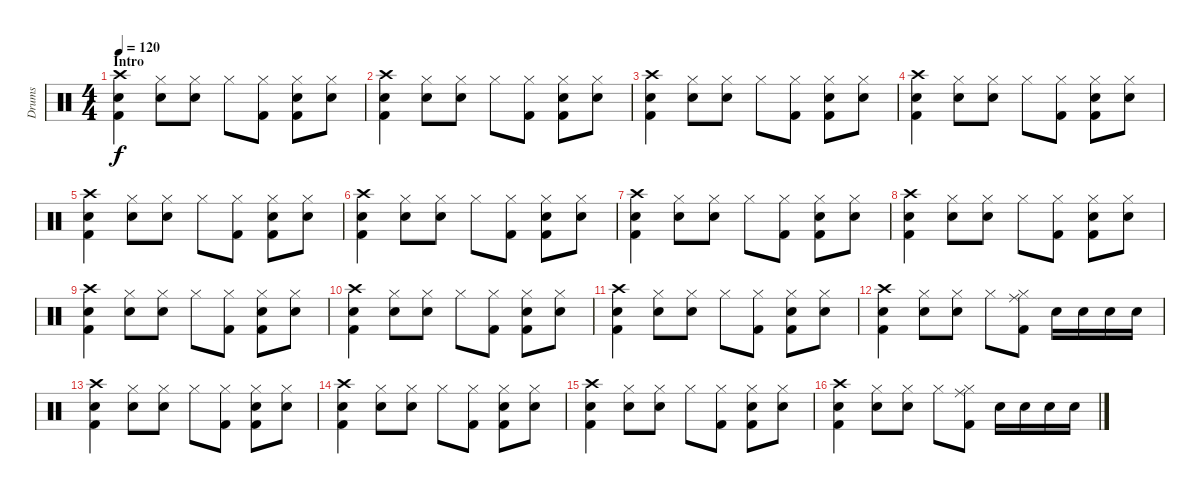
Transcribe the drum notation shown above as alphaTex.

\track ("Drums" "Drums") {instrument percussion}
\staff {score}
\articulation defaults
\ts (4 4)
\section ("" "Intro")
\tempo 120
\clef neutral
\ks c
("Crash high (hit)" "Kick (hit) 2" "Snare (hit) 2").4{dy f} ("Hi-Hat (closed)" "Snare (hit) 2").8 ("Hi-Hat (closed)" "Snare (hit) 2").8 "Hi-Hat (closed)".8 ("Hi-Hat (closed)" "Kick (hit) 2").8 ("Hi-Hat (closed)" "Kick (hit) 2" "Snare (hit) 2").8 ("Hi-Hat (closed)" "Snare (hit) 2").8 |
("Crash high (hit)" "Kick (hit) 2" "Snare (hit) 2").4 ("Hi-Hat (closed)" "Snare (hit) 2").8 ("Hi-Hat (closed)" "Snare (hit) 2").8 "Hi-Hat (closed)".8 ("Hi-Hat (closed)" "Kick (hit) 2").8 ("Hi-Hat (closed)" "Kick (hit) 2" "Snare (hit) 2").8 ("Hi-Hat (closed)" "Snare (hit) 2").8 |
("Crash high (hit)" "Kick (hit) 2" "Snare (hit) 2").4 ("Hi-Hat (closed)" "Snare (hit) 2").8 ("Hi-Hat (closed)" "Snare (hit) 2").8 "Hi-Hat (closed)".8 ("Hi-Hat (closed)" "Kick (hit) 2").8 ("Hi-Hat (closed)" "Kick (hit) 2" "Snare (hit) 2").8 ("Hi-Hat (closed)" "Snare (hit) 2").8 |
("Crash high (hit)" "Kick (hit) 2" "Snare (hit) 2").4 ("Hi-Hat (closed)" "Snare (hit) 2").8 ("Hi-Hat (closed)" "Snare (hit) 2").8 "Hi-Hat (closed)".8 ("Hi-Hat (closed)" "Kick (hit) 2").8 ("Hi-Hat (closed)" "Kick (hit) 2" "Snare (hit) 2").8 ("Hi-Hat (closed)" "Snare (hit) 2").8 |
("Crash high (hit)" "Kick (hit) 2" "Snare (hit) 2").4 ("Hi-Hat (closed)" "Snare (hit) 2").8 ("Hi-Hat (closed)" "Snare (hit) 2").8 "Hi-Hat (closed)".8 ("Hi-Hat (closed)" "Kick (hit) 2").8 ("Hi-Hat (closed)" "Kick (hit) 2" "Snare (hit) 2").8 ("Hi-Hat (closed)" "Snare (hit) 2").8 |
("Crash high (hit)" "Kick (hit) 2" "Snare (hit) 2").4 ("Hi-Hat (closed)" "Snare (hit) 2").8 ("Hi-Hat (closed)" "Snare (hit) 2").8 "Hi-Hat (closed)".8 ("Hi-Hat (closed)" "Kick (hit) 2").8 ("Hi-Hat (closed)" "Kick (hit) 2" "Snare (hit) 2").8 ("Hi-Hat (closed)" "Snare (hit) 2").8 |
("Crash high (hit)" "Kick (hit) 2" "Snare (hit) 2").4 ("Hi-Hat (closed)" "Snare (hit) 2").8 ("Hi-Hat (closed)" "Snare (hit) 2").8 "Hi-Hat (closed)".8 ("Hi-Hat (closed)" "Kick (hit) 2").8 ("Hi-Hat (closed)" "Kick (hit) 2" "Snare (hit) 2").8 ("Hi-Hat (closed)" "Snare (hit) 2").8 |
("Crash high (hit)" "Kick (hit) 2" "Snare (hit) 2").4 ("Hi-Hat (closed)" "Snare (hit) 2").8 ("Hi-Hat (closed)" "Snare (hit) 2").8 "Hi-Hat (closed)".8 ("Hi-Hat (closed)" "Kick (hit) 2").8 ("Hi-Hat (closed)" "Kick (hit) 2" "Snare (hit) 2").8 ("Hi-Hat (closed)" "Snare (hit) 2").8 |
("Crash high (hit)" "Kick (hit) 2" "Snare (hit) 2").4 ("Hi-Hat (closed)" "Snare (hit) 2").8 ("Hi-Hat (closed)" "Snare (hit) 2").8 "Hi-Hat (closed)".8 ("Hi-Hat (closed)" "Kick (hit) 2").8 ("Hi-Hat (closed)" "Kick (hit) 2" "Snare (hit) 2").8 ("Hi-Hat (closed)" "Snare (hit) 2").8 |
("Crash high (hit)" "Kick (hit) 2" "Snare (hit) 2").4 ("Hi-Hat (closed)" "Snare (hit) 2").8 ("Hi-Hat (closed)" "Snare (hit) 2").8 "Hi-Hat (closed)".8 ("Hi-Hat (closed)" "Kick (hit) 2").8 ("Hi-Hat (closed)" "Kick (hit) 2" "Snare (hit) 2").8 ("Hi-Hat (closed)" "Snare (hit) 2").8 |
("Crash high (hit)" "Kick (hit) 2" "Snare (hit) 2").4 ("Hi-Hat (closed)" "Snare (hit) 2").8 ("Hi-Hat (closed)" "Snare (hit) 2").8 "Hi-Hat (closed)".8 ("Hi-Hat (closed)" "Kick (hit) 2").8 ("Hi-Hat (closed)" "Kick (hit) 2" "Snare (hit) 2").8 ("Hi-Hat (closed)" "Snare (hit) 2").8 |
("Crash high (hit)" "Kick (hit) 2" "Snare (hit) 2").4 ("Hi-Hat (closed)" "Snare (hit) 2").8 ("Hi-Hat (closed)" "Snare (hit) 2").8 "Hi-Hat (closed)".8 ("Ride (middle)" "Hi-Hat (closed)" "Kick (hit) 2").8 "Electric Snare (hit)".16 "Electric Snare (hit)".16 "Electric Snare (hit)".16 "Electric Snare (hit)".16 |
("Crash high (hit)" "Kick (hit) 2" "Snare (hit) 2").4 ("Hi-Hat (closed)" "Snare (hit) 2").8 ("Hi-Hat (closed)" "Snare (hit) 2").8 "Hi-Hat (closed)".8 ("Hi-Hat (closed)" "Kick (hit) 2").8 ("Hi-Hat (closed)" "Kick (hit) 2" "Snare (hit) 2").8 ("Hi-Hat (closed)" "Snare (hit) 2").8 |
("Crash high (hit)" "Kick (hit) 2" "Snare (hit) 2").4 ("Hi-Hat (closed)" "Snare (hit) 2").8 ("Hi-Hat (closed)" "Snare (hit) 2").8 "Hi-Hat (closed)".8 ("Hi-Hat (closed)" "Kick (hit) 2").8 ("Hi-Hat (closed)" "Kick (hit) 2" "Snare (hit) 2").8 ("Hi-Hat (closed)" "Snare (hit) 2").8 |
("Crash high (hit)" "Kick (hit) 2" "Snare (hit) 2").4 ("Hi-Hat (closed)" "Snare (hit) 2").8 ("Hi-Hat (closed)" "Snare (hit) 2").8 "Hi-Hat (closed)".8 ("Hi-Hat (closed)" "Kick (hit) 2").8 ("Hi-Hat (closed)" "Kick (hit) 2" "Snare (hit) 2").8 ("Hi-Hat (closed)" "Snare (hit) 2").8 |
("Crash high (hit)" "Kick (hit) 2" "Snare (hit) 2").4 ("Hi-Hat (closed)" "Snare (hit) 2").8 ("Hi-Hat (closed)" "Snare (hit) 2").8 "Hi-Hat (closed)".8 ("Ride (middle)" "Hi-Hat (closed)" "Kick (hit) 2").8 "Electric Snare (hit)".16 "Electric Snare (hit)".16 "Electric Snare (hit)".16 "Electric Snare (hit)".16
